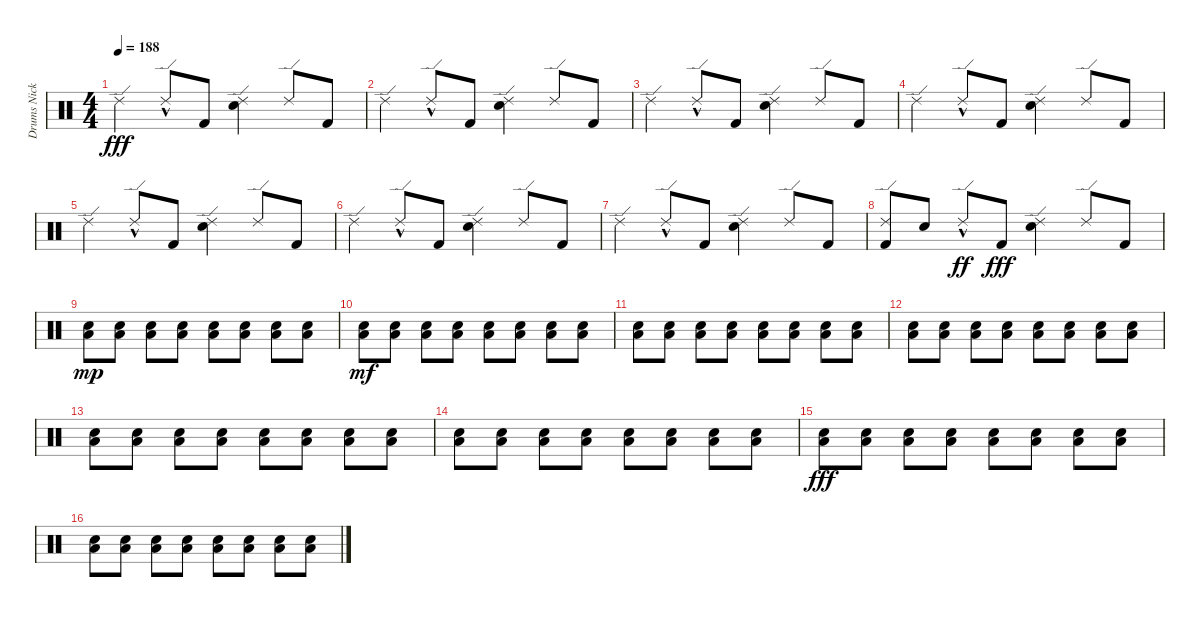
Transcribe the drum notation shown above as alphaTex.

\track ("Drums Nicko McBrain" "Drums Nick") {instrument percussion}
\staff {score}
\articulation defaults
\ts (4 4)
\tempo 188
\clef neutral
\ks c "Ride (edge) 2".4{dy fff} "Ride (edge) 2"{hac}.8 "Kick (hit) 2".8
("Ride (edge) 2" "Electric Snare (hit)").4 "Ride (edge) 2".8 "Kick (hit) 2".8 |
"Ride (edge) 2".4 "Ride (edge) 2"{hac}.8 "Kick (hit) 2".8 ("Ride (edge) 2" "Electric Snare (hit)").4 "Ride (edge) 2".8 "Kick (hit) 2".8 |
"Ride (edge) 2".4 "Ride (edge) 2"{hac}.8 "Kick (hit) 2".8 ("Ride (edge) 2" "Electric Snare (hit)").4 "Ride (edge) 2".8 "Kick (hit) 2".8 |
"Ride (edge) 2".4 "Ride (edge) 2"{hac}.8 "Kick (hit) 2".8 ("Ride (edge) 2" "Electric Snare (hit)").4 "Ride (edge) 2".8 "Kick (hit) 2".8 |
"Ride (edge) 2".4 "Ride (edge) 2"{hac}.8 "Kick (hit) 2".8 ("Ride (edge) 2" "Electric Snare (hit)").4 "Ride (edge) 2".8 "Kick (hit) 2".8 |
"Ride (edge) 2".4 "Ride (edge) 2"{hac}.8 "Kick (hit) 2".8 ("Ride (edge) 2" "Electric Snare (hit)").4 "Ride (edge) 2".8 "Kick (hit) 2".8 |
"Ride (edge) 2".4 "Ride (edge) 2"{hac}.8 "Kick (hit) 2".8 ("Ride (edge) 2" "Electric Snare (hit)").4 "Ride (edge) 2".8 "Kick (hit) 2".8 |
("Ride (edge) 2" "Kick (hit) 2").8 "Electric Snare (hit)".8 "Ride (edge) 2"{hac}.8{dy ff} "Kick (hit) 2".8{dy fff} ("Ride (edge) 2" "Electric Snare (hit)").4 "Ride (edge) 2".8 "Kick (hit) 2".8 |
("Electric Snare (hit)" "Low Floor Tom (hit)").8{dy mp} ("Electric Snare (hit)" "Low Floor Tom (hit)").8 ("Electric Snare (hit)" "Low Floor Tom (hit)").8 ("Electric Snare (hit)" "Low Floor Tom (hit)").8 ("Electric Snare (hit)" "Low Floor Tom (hit)").8 ("Electric Snare (hit)" "Low Floor Tom (hit)").8 ("Electric Snare (hit)" "Low Floor Tom (hit)").8 ("Electric Snare (hit)" "Low Floor Tom (hit)").8 |
("Electric Snare (hit)" "Low Floor Tom (hit)").8{dy mf} ("Electric Snare (hit)" "Low Floor Tom (hit)").8 ("Electric Snare (hit)" "Low Floor Tom (hit)").8 ("Electric Snare (hit)" "Low Floor Tom (hit)").8 ("Electric Snare (hit)" "Low Floor Tom (hit)").8 ("Electric Snare (hit)" "Low Floor Tom (hit)").8 ("Electric Snare (hit)" "Low Floor Tom (hit)").8 ("Electric Snare (hit)" "Low Floor Tom (hit)").8 |
("Electric Snare (hit)" "Low Floor Tom (hit)").8 ("Electric Snare (hit)" "Low Floor Tom (hit)").8 ("Electric Snare (hit)" "Low Floor Tom (hit)").8 ("Electric Snare (hit)" "Low Floor Tom (hit)").8 ("Electric Snare (hit)" "Low Floor Tom (hit)").8 ("Electric Snare (hit)" "Low Floor Tom (hit)").8 ("Electric Snare (hit)" "Low Floor Tom (hit)").8 ("Electric Snare (hit)" "Low Floor Tom (hit)").8 |
("Electric Snare (hit)" "Low Floor Tom (hit)").8 ("Electric Snare (hit)" "Low Floor Tom (hit)").8 ("Electric Snare (hit)" "Low Floor Tom (hit)").8 ("Electric Snare (hit)" "Low Floor Tom (hit)").8 ("Electric Snare (hit)" "Low Floor Tom (hit)").8 ("Electric Snare (hit)" "Low Floor Tom (hit)").8 ("Electric Snare (hit)" "Low Floor Tom (hit)").8 ("Electric Snare (hit)" "Low Floor Tom (hit)").8 |
("Electric Snare (hit)" "Low Floor Tom (hit)").8 ("Electric Snare (hit)" "Low Floor Tom (hit)").8 ("Electric Snare (hit)" "Low Floor Tom (hit)").8 ("Electric Snare (hit)" "Low Floor Tom (hit)").8 ("Electric Snare (hit)" "Low Floor Tom (hit)").8 ("Electric Snare (hit)" "Low Floor Tom (hit)").8 ("Electric Snare (hit)" "Low Floor Tom (hit)").8 ("Electric Snare (hit)" "Low Floor Tom (hit)").8 |
("Electric Snare (hit)" "Low Floor Tom (hit)").8 ("Electric Snare (hit)" "Low Floor Tom (hit)").8 ("Electric Snare (hit)" "Low Floor Tom (hit)").8 ("Electric Snare (hit)" "Low Floor Tom (hit)").8 ("Electric Snare (hit)" "Low Floor Tom (hit)").8 ("Electric Snare (hit)" "Low Floor Tom (hit)").8 ("Electric Snare (hit)" "Low Floor Tom (hit)").8 ("Electric Snare (hit)" "Low Floor Tom (hit)").8 |
("Electric Snare (hit)" "Low Floor Tom (hit)").8{dy fff} ("Electric Snare (hit)" "Low Floor Tom (hit)").8 ("Electric Snare (hit)" "Low Floor Tom (hit)").8 ("Electric Snare (hit)" "Low Floor Tom (hit)").8 ("Electric Snare (hit)" "Low Floor Tom (hit)").8 ("Electric Snare (hit)" "Low Floor Tom (hit)").8 ("Electric Snare (hit)" "Low Floor Tom (hit)").8 ("Electric Snare (hit)" "Low Floor Tom (hit)").8 |
("Electric Snare (hit)" "Low Floor Tom (hit)").8 ("Electric Snare (hit)" "Low Floor Tom (hit)").8 ("Electric Snare (hit)" "Low Floor Tom (hit)").8 ("Electric Snare (hit)" "Low Floor Tom (hit)").8 ("Electric Snare (hit)" "Low Floor Tom (hit)").8 ("Electric Snare (hit)" "Low Floor Tom (hit)").8 ("Electric Snare (hit)" "Low Floor Tom (hit)").8 ("Electric Snare (hit)" "Low Floor Tom (hit)").8
